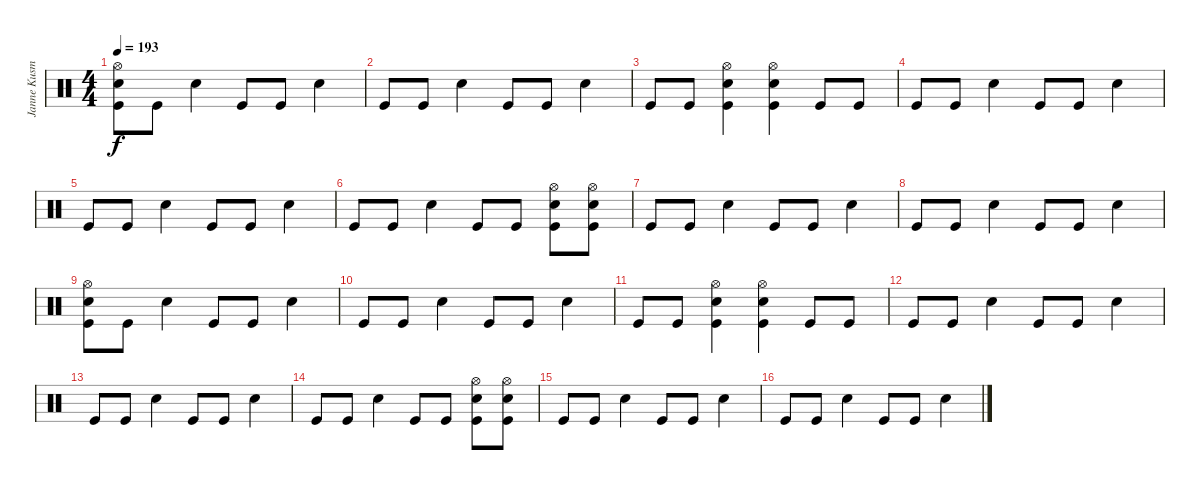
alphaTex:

\track ("Janne Kusmin " "Janne Kusm") {instrument percussion}
\staff {score}
\articulation defaults
\ts (4 4)
\tempo 193
\clef neutral
\ks c
("Hi-Hat (open)" "Snare (hit) 2" "Kick (hit)").8{dy f} "Kick (hit)".8 "Snare (hit) 2".4 "Kick (hit)".8 "Kick (hit)".8 "Snare (hit) 2".4 |
"Kick (hit)".8 "Kick (hit)".8 "Snare (hit) 2".4 "Kick (hit)".8 "Kick (hit)".8 "Snare (hit) 2".4 |
"Kick (hit)".8 "Kick (hit)".8 ("Hi-Hat (open)" "Snare (hit) 2" "Kick (hit)").4 ("Hi-Hat (open)" "Snare (hit) 2" "Kick (hit)").4 "Kick (hit)".8 "Kick (hit)".8 |
"Kick (hit)".8 "Kick (hit)".8 "Snare (hit) 2".4 "Kick (hit)".8 "Kick (hit)".8 "Snare (hit) 2".4 |
"Kick (hit)".8 "Kick (hit)".8 "Snare (hit) 2".4 "Kick (hit)".8 "Kick (hit)".8 "Snare (hit) 2".4 |
"Kick (hit)".8 "Kick (hit)".8 "Snare (hit) 2".4 "Kick (hit)".8 "Kick (hit)".8 ("Hi-Hat (open)" "Snare (hit) 2" "Kick (hit)").8 ("Hi-Hat (open)" "Snare (hit) 2" "Kick (hit)").8 |
"Kick (hit)".8 "Kick (hit)".8 "Snare (hit) 2".4 "Kick (hit)".8 "Kick (hit)".8 "Snare (hit) 2".4 |
"Kick (hit)".8 "Kick (hit)".8 "Snare (hit) 2".4 "Kick (hit)".8 "Kick (hit)".8 "Snare (hit) 2".4 |
("Hi-Hat (open)" "Snare (hit) 2" "Kick (hit)").8 "Kick (hit)".8 "Snare (hit) 2".4 "Kick (hit)".8 "Kick (hit)".8 "Snare (hit) 2".4 |
"Kick (hit)".8 "Kick (hit)".8 "Snare (hit) 2".4 "Kick (hit)".8 "Kick (hit)".8 "Snare (hit) 2".4 |
"Kick (hit)".8 "Kick (hit)".8 ("Hi-Hat (open)" "Snare (hit) 2" "Kick (hit)").4 ("Hi-Hat (open)" "Snare (hit) 2" "Kick (hit)").4 "Kick (hit)".8 "Kick (hit)".8 |
"Kick (hit)".8 "Kick (hit)".8 "Snare (hit) 2".4 "Kick (hit)".8 "Kick (hit)".8 "Snare (hit) 2".4 |
"Kick (hit)".8 "Kick (hit)".8 "Snare (hit) 2".4 "Kick (hit)".8 "Kick (hit)".8 "Snare (hit) 2".4 |
"Kick (hit)".8 "Kick (hit)".8 "Snare (hit) 2".4 "Kick (hit)".8 "Kick (hit)".8 ("Hi-Hat (open)" "Snare (hit) 2" "Kick (hit)").8 ("Hi-Hat (open)" "Snare (hit) 2" "Kick (hit)").8 |
"Kick (hit)".8 "Kick (hit)".8 "Snare (hit) 2".4 "Kick (hit)".8 "Kick (hit)".8 "Snare (hit) 2".4 |
"Kick (hit)".8 "Kick (hit)".8 "Snare (hit) 2".4 "Kick (hit)".8 "Kick (hit)".8 "Snare (hit) 2".4
